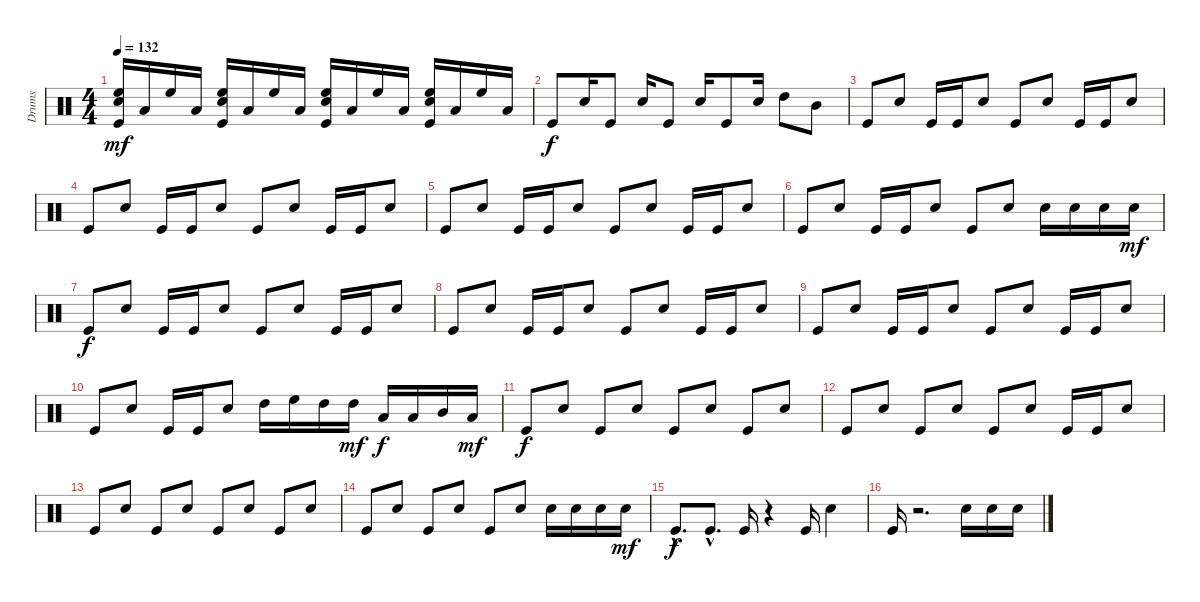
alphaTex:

\track ("Drums" "Drums") {instrument percussion}
\staff {score}
\articulation defaults
\ts (4 4)
\tempo 132
\clef neutral
\ks c
("Kick (hit)" "High Floor Tom (hit)" "Electric Snare (hit)").16{dy mf} "Low Tom (hit)".16 "High Floor Tom (hit)".16 "Low Tom (hit)".16 ("Kick (hit)" "High Floor Tom (hit)" "Electric Snare (hit)").16 "Low Tom (hit)".16 "High Floor Tom (hit)".16 "Low Tom (hit)".16 ("Kick (hit)" "High Floor Tom (hit)" "Electric Snare (hit)").16 "Low Tom (hit)".16 "High Floor Tom (hit)".16 "Low Tom (hit)".16 ("Kick (hit)" "High Floor Tom (hit)" "Electric Snare (hit)").16 "Low Tom (hit)".16 "High Floor Tom (hit)".16 "Low Tom (hit)".16 |
"Kick (hit)".8{dy f} "Electric Snare (hit)".16 "Kick (hit)".8 "Electric Snare (hit)".16 "Kick (hit)".8 "Electric Snare (hit)".16 "Kick (hit)".8 "Electric Snare (hit)".16 "High Tom (hit)".8 "Mid Tom (hit)".8 |
"Kick (hit)".8 "Electric Snare (hit)".8 "Kick (hit)".16 "Kick (hit)".16 "Electric Snare (hit)".8 "Kick (hit)".8 "Electric Snare (hit)".8 "Kick (hit)".16 "Kick (hit)".16 "Electric Snare (hit)".8 |
"Kick (hit)".8 "Electric Snare (hit)".8 "Kick (hit)".16 "Kick (hit)".16 "Electric Snare (hit)".8 "Kick (hit)".8 "Electric Snare (hit)".8 "Kick (hit)".16 "Kick (hit)".16 "Electric Snare (hit)".8 |
"Kick (hit)".8 "Electric Snare (hit)".8 "Kick (hit)".16 "Kick (hit)".16 "Electric Snare (hit)".8 "Kick (hit)".8 "Electric Snare (hit)".8 "Kick (hit)".16 "Kick (hit)".16 "Electric Snare (hit)".8 |
"Kick (hit)".8 "Electric Snare (hit)".8 "Kick (hit)".16 "Kick (hit)".16 "Electric Snare (hit)".8 "Kick (hit)".8 "Electric Snare (hit)".8 "Electric Snare (hit)".16 "Electric Snare (hit)".16 "Electric Snare (hit)".16 "Electric Snare (hit)".16{dy mf} |
"Kick (hit)".8{dy f} "Electric Snare (hit)".8 "Kick (hit)".16 "Kick (hit)".16 "Electric Snare (hit)".8 "Kick (hit)".8 "Electric Snare (hit)".8 "Kick (hit)".16 "Kick (hit)".16 "Electric Snare (hit)".8 |
"Kick (hit)".8 "Electric Snare (hit)".8 "Kick (hit)".16 "Kick (hit)".16 "Electric Snare (hit)".8 "Kick (hit)".8 "Electric Snare (hit)".8 "Kick (hit)".16 "Kick (hit)".16 "Electric Snare (hit)".8 |
"Kick (hit)".8 "Electric Snare (hit)".8 "Kick (hit)".16 "Kick (hit)".16 "Electric Snare (hit)".8 "Kick (hit)".8 "Electric Snare (hit)".8 "Kick (hit)".16 "Kick (hit)".16 "Electric Snare (hit)".8 |
"Kick (hit)".8 "Electric Snare (hit)".8 "Kick (hit)".16 "Kick (hit)".16 "Electric Snare (hit)".8 "High Tom (hit)".16 "High Floor Tom (hit)".16 "High Tom (hit)".16 "High Tom (hit)".16{dy mf} "Low Tom (hit)".16{dy f} "Low Tom (hit)".16 "Mid Tom (hit)".16 "Low Tom (hit)".16{dy mf} |
"Kick (hit)".8{dy f} "Electric Snare (hit)".8 "Kick (hit)".8 "Electric Snare (hit)".8 "Kick (hit)".8 "Electric Snare (hit)".8 "Kick (hit)".8 "Electric Snare (hit)".8 |
"Kick (hit)".8 "Electric Snare (hit)".8 "Kick (hit)".8 "Electric Snare (hit)".8 "Kick (hit)".8 "Electric Snare (hit)".8 "Kick (hit)".16 "Kick (hit)".16 "Electric Snare (hit)".8 |
"Kick (hit)".8 "Electric Snare (hit)".8 "Kick (hit)".8 "Electric Snare (hit)".8 "Kick (hit)".8 "Electric Snare (hit)".8 "Kick (hit)".8 "Electric Snare (hit)".8 |
"Kick (hit)".8 "Electric Snare (hit)".8 "Kick (hit)".8 "Electric Snare (hit)".8 "Kick (hit)".8 "Electric Snare (hit)".8 "Electric Snare (hit)".16 "Electric Snare (hit)".16 "Electric Snare (hit)".16 "Electric Snare (hit)".16{dy mf} |
"Kick (hit)"{hac}.8{d dy f} "Kick (hit)"{hac}.8{d} "Kick (hit)".16 r.4 "Kick (hit)".16 "Electric Snare (hit)".4 |
"Kick (hit)".16 r.2{d} "Electric Snare (hit)".16 "Electric Snare (hit)".16 "Electric Snare (hit)".16
